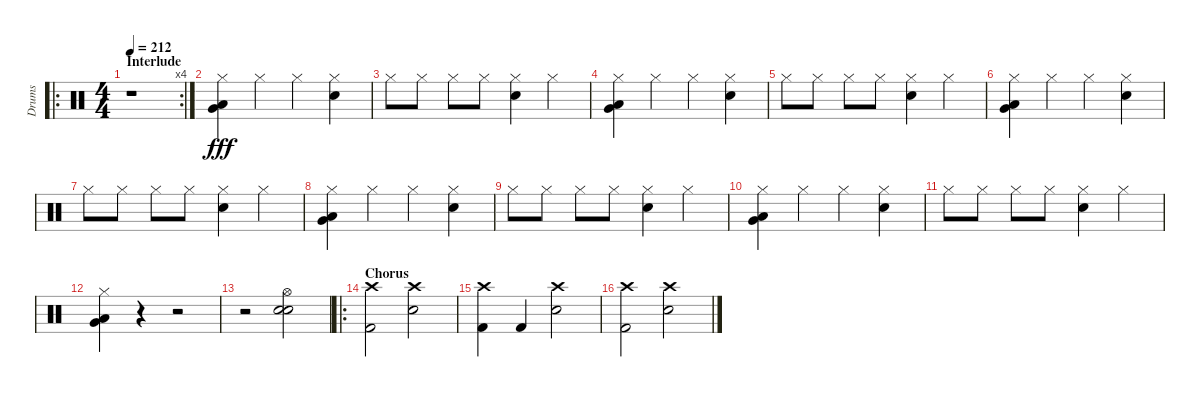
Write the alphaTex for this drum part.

\track ("Drums" "Drums") {instrument percussion}
\staff {score}
\articulation defaults
\ro
\rc 4
\ts (4 4)
\section ("" "Interlude")
\tempo 212
\clef neutral
\ks c
r.1{dy fff} |
("Very Low Tom (hit)" "Low Floor Tom (hit)" "Hi-Hat (closed)").4 "Hi-Hat (closed)".4 "Hi-Hat (closed)".4 ("Hi-Hat (closed)" "Electric Snare (hit)").4 |
"Hi-Hat (closed)".8 "Hi-Hat (closed)".8 "Hi-Hat (closed)".8 "Hi-Hat (closed)".8 ("Hi-Hat (closed)" "Electric Snare (hit)").4 "Hi-Hat (closed)".4 |
("Very Low Tom (hit)" "Low Floor Tom (hit)" "Hi-Hat (closed)").4 "Hi-Hat (closed)".4 "Hi-Hat (closed)".4 ("Hi-Hat (closed)" "Electric Snare (hit)").4 |
"Hi-Hat (closed)".8 "Hi-Hat (closed)".8 "Hi-Hat (closed)".8 "Hi-Hat (closed)".8 ("Hi-Hat (closed)" "Electric Snare (hit)").4 "Hi-Hat (closed)".4 |
("Very Low Tom (hit)" "Low Floor Tom (hit)" "Hi-Hat (closed)").4 "Hi-Hat (closed)".4 "Hi-Hat (closed)".4 ("Hi-Hat (closed)" "Electric Snare (hit)").4 |
"Hi-Hat (closed)".8 "Hi-Hat (closed)".8 "Hi-Hat (closed)".8 "Hi-Hat (closed)".8 ("Hi-Hat (closed)" "Electric Snare (hit)").4 "Hi-Hat (closed)".4 |
("Very Low Tom (hit)" "Low Floor Tom (hit)" "Hi-Hat (closed)").4 "Hi-Hat (closed)".4 "Hi-Hat (closed)".4 ("Hi-Hat (closed)" "Electric Snare (hit)").4 |
"Hi-Hat (closed)".8 "Hi-Hat (closed)".8 "Hi-Hat (closed)".8 "Hi-Hat (closed)".8 ("Hi-Hat (closed)" "Electric Snare (hit)").4 "Hi-Hat (closed)".4 |
("Very Low Tom (hit)" "Low Floor Tom (hit)" "Hi-Hat (closed)").4 "Hi-Hat (closed)".4 "Hi-Hat (closed)".4 ("Hi-Hat (closed)" "Electric Snare (hit)").4 |
"Hi-Hat (closed)".8 "Hi-Hat (closed)".8 "Hi-Hat (closed)".8 "Hi-Hat (closed)".8 ("Hi-Hat (closed)" "Electric Snare (hit)").4 "Hi-Hat (closed)".4 |
("Very Low Tom (hit)" "Low Floor Tom (hit)" "Hi-Hat (closed)").4 r.4 r.2 |
r.2 ("Hi-Hat (open)" "Electric Snare (hit)" "Electric Snare (hit)").2 |
\ro
\section ("" "Chorus")
("Crash high (hit)" "Kick (hit) 2").2 ("Crash high (hit)" "Electric Snare (hit)").2 |
("Crash high (hit)" "Kick (hit) 2").4 "Kick (hit) 2".4 ("Crash high (hit)" "Electric Snare (hit)").2 |
("Crash high (hit)" "Kick (hit) 2").2 ("Crash high (hit)" "Electric Snare (hit)").2
